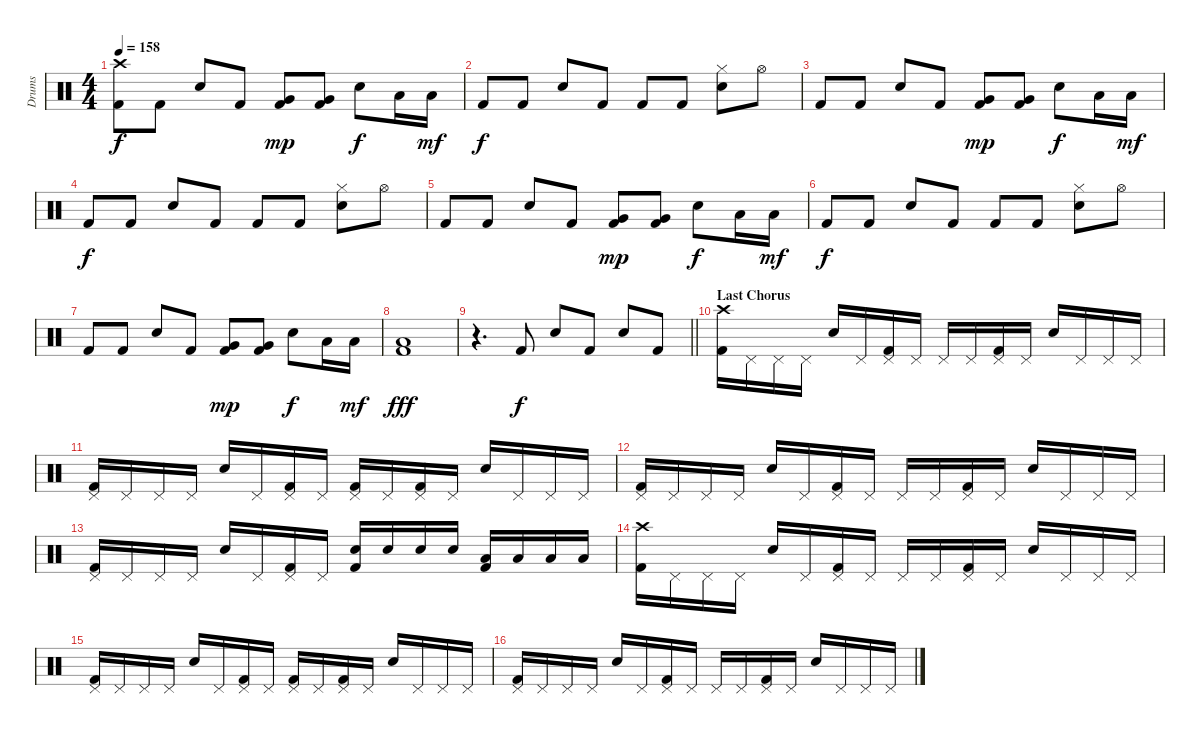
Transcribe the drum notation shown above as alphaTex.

\track ("Drums" "Drums") {instrument percussion}
\staff {score}
\articulation defaults
\ts (4 4)
\tempo 158
\clef neutral
\ks c
("Crash high (hit)" "Kick (hit) 2").8{dy f} "Kick (hit) 2".8 "Electric Snare (hit)".8 "Kick (hit) 2".8 ("Very Low Tom (hit)" "Kick (hit) 2").8{dy mp} ("Very Low Tom (hit)" "Kick (hit) 2").8 "Electric Snare (hit)".8{dy f} "Low Tom (hit)".16 "Low Tom (hit)".16{dy mf} |
"Kick (hit) 2".8{dy f} "Kick (hit) 2".8 "Electric Snare (hit)".8 "Kick (hit) 2".8 "Kick (hit) 2".8 "Kick (hit) 2".8 ("Hi-Hat (closed)" "Electric Snare (hit)").8 "Hi-Hat (open)".8 |
"Kick (hit) 2".8 "Kick (hit) 2".8 "Electric Snare (hit)".8 "Kick (hit) 2".8 ("Very Low Tom (hit)" "Kick (hit) 2").8{dy mp} ("Very Low Tom (hit)" "Kick (hit) 2").8 "Electric Snare (hit)".8{dy f} "Low Tom (hit)".16 "Low Tom (hit)".16{dy mf} |
"Kick (hit) 2".8{dy f} "Kick (hit) 2".8 "Electric Snare (hit)".8 "Kick (hit) 2".8 "Kick (hit) 2".8 "Kick (hit) 2".8 ("Hi-Hat (closed)" "Electric Snare (hit)").8 "Hi-Hat (open)".8 |
"Kick (hit) 2".8 "Kick (hit) 2".8 "Electric Snare (hit)".8 "Kick (hit) 2".8 ("Very Low Tom (hit)" "Kick (hit) 2").8{dy mp} ("Very Low Tom (hit)" "Kick (hit) 2").8 "Electric Snare (hit)".8{dy f} "Low Tom (hit)".16 "Low Tom (hit)".16{dy mf} |
"Kick (hit) 2".8{dy f} "Kick (hit) 2".8 "Electric Snare (hit)".8 "Kick (hit) 2".8 "Kick (hit) 2".8 "Kick (hit) 2".8 ("Hi-Hat (closed)" "Electric Snare (hit)").8 "Hi-Hat (open)".8 |
"Kick (hit) 2".8 "Kick (hit) 2".8 "Electric Snare (hit)".8 "Kick (hit) 2".8 ("Very Low Tom (hit)" "Kick (hit) 2").8{dy mp} ("Very Low Tom (hit)" "Kick (hit) 2").8 "Electric Snare (hit)".8{dy f} "Low Tom (hit)".16 "Low Tom (hit)".16{dy mf} |
("Low Tom (hit)" "Kick (hit) 2").1{dy fff} |
\barLineRight lightlight
r.4{d} "Kick (hit) 2".8{dy f} "Electric Snare (hit)".8 "Kick (hit) 2".8 "Electric Snare (hit)".8 "Kick (hit) 2".8 |
\section ("" "Last Chorus")
("Crash high (hit)" "Kick (hit) 2").16 "Pedal Hi-Hat (hit)".16 "Pedal Hi-Hat (hit)".16 "Pedal Hi-Hat (hit)".16 "Electric Snare (hit)".16 "Pedal Hi-Hat (hit)".16 ("Pedal Hi-Hat (hit)" "Kick (hit) 2").16 "Pedal Hi-Hat (hit)".16 "Pedal Hi-Hat (hit)".16 "Pedal Hi-Hat (hit)".16 ("Pedal Hi-Hat (hit)" "Kick (hit) 2").16 "Pedal Hi-Hat (hit)".16 "Electric Snare (hit)".16 "Pedal Hi-Hat (hit)".16 "Pedal Hi-Hat (hit)".16 "Pedal Hi-Hat (hit)".16 |
("Pedal Hi-Hat (hit)" "Kick (hit) 2").16 "Pedal Hi-Hat (hit)".16 "Pedal Hi-Hat (hit)".16 "Pedal Hi-Hat (hit)".16 "Electric Snare (hit)".16 "Pedal Hi-Hat (hit)".16 ("Pedal Hi-Hat (hit)" "Kick (hit) 2").16 "Pedal Hi-Hat (hit)".16 ("Pedal Hi-Hat (hit)" "Kick (hit) 2").16 "Pedal Hi-Hat (hit)".16 ("Pedal Hi-Hat (hit)" "Kick (hit) 2").16 "Pedal Hi-Hat (hit)".16 "Electric Snare (hit)".16 "Pedal Hi-Hat (hit)".16 "Pedal Hi-Hat (hit)".16 "Pedal Hi-Hat (hit)".16 |
("Pedal Hi-Hat (hit)" "Kick (hit) 2").16 "Pedal Hi-Hat (hit)".16 "Pedal Hi-Hat (hit)".16 "Pedal Hi-Hat (hit)".16 "Electric Snare (hit)".16 "Pedal Hi-Hat (hit)".16 ("Pedal Hi-Hat (hit)" "Kick (hit) 2").16 "Pedal Hi-Hat (hit)".16 "Pedal Hi-Hat (hit)".16 "Pedal Hi-Hat (hit)".16 ("Pedal Hi-Hat (hit)" "Kick (hit) 2").16 "Pedal Hi-Hat (hit)".16 "Electric Snare (hit)".16 "Pedal Hi-Hat (hit)".16 "Pedal Hi-Hat (hit)".16 "Pedal Hi-Hat (hit)".16 |
("Pedal Hi-Hat (hit)" "Kick (hit) 2").16 "Pedal Hi-Hat (hit)".16 "Pedal Hi-Hat (hit)".16 "Pedal Hi-Hat (hit)".16 "Electric Snare (hit)".16 "Pedal Hi-Hat (hit)".16 ("Pedal Hi-Hat (hit)" "Kick (hit) 2").16 "Pedal Hi-Hat (hit)".16 ("Electric Snare (hit)" "Kick (hit) 2").16 "Electric Snare (hit)".16 "Electric Snare (hit)".16 "Electric Snare (hit)".16 ("Low Tom (hit)" "Kick (hit) 2").16 "Low Tom (hit)".16 "Low Tom (hit)".16 "Low Tom (hit)".16 |
("Crash high (hit)" "Kick (hit) 2").16 "Pedal Hi-Hat (hit)".16 "Pedal Hi-Hat (hit)".16 "Pedal Hi-Hat (hit)".16 "Electric Snare (hit)".16 "Pedal Hi-Hat (hit)".16 ("Pedal Hi-Hat (hit)" "Kick (hit) 2").16 "Pedal Hi-Hat (hit)".16 "Pedal Hi-Hat (hit)".16 "Pedal Hi-Hat (hit)".16 ("Pedal Hi-Hat (hit)" "Kick (hit) 2").16 "Pedal Hi-Hat (hit)".16 "Electric Snare (hit)".16 "Pedal Hi-Hat (hit)".16 "Pedal Hi-Hat (hit)".16 "Pedal Hi-Hat (hit)".16 |
("Pedal Hi-Hat (hit)" "Kick (hit) 2").16 "Pedal Hi-Hat (hit)".16 "Pedal Hi-Hat (hit)".16 "Pedal Hi-Hat (hit)".16 "Electric Snare (hit)".16 "Pedal Hi-Hat (hit)".16 ("Pedal Hi-Hat (hit)" "Kick (hit) 2").16 "Pedal Hi-Hat (hit)".16 ("Pedal Hi-Hat (hit)" "Kick (hit) 2").16 "Pedal Hi-Hat (hit)".16 ("Pedal Hi-Hat (hit)" "Kick (hit) 2").16 "Pedal Hi-Hat (hit)".16 "Electric Snare (hit)".16 "Pedal Hi-Hat (hit)".16 "Pedal Hi-Hat (hit)".16 "Pedal Hi-Hat (hit)".16 |
("Pedal Hi-Hat (hit)" "Kick (hit) 2").16 "Pedal Hi-Hat (hit)".16 "Pedal Hi-Hat (hit)".16 "Pedal Hi-Hat (hit)".16 "Electric Snare (hit)".16 "Pedal Hi-Hat (hit)".16 ("Pedal Hi-Hat (hit)" "Kick (hit) 2").16 "Pedal Hi-Hat (hit)".16 "Pedal Hi-Hat (hit)".16 "Pedal Hi-Hat (hit)".16 ("Pedal Hi-Hat (hit)" "Kick (hit) 2").16 "Pedal Hi-Hat (hit)".16 "Electric Snare (hit)".16 "Pedal Hi-Hat (hit)".16 "Pedal Hi-Hat (hit)".16 "Pedal Hi-Hat (hit)".16
